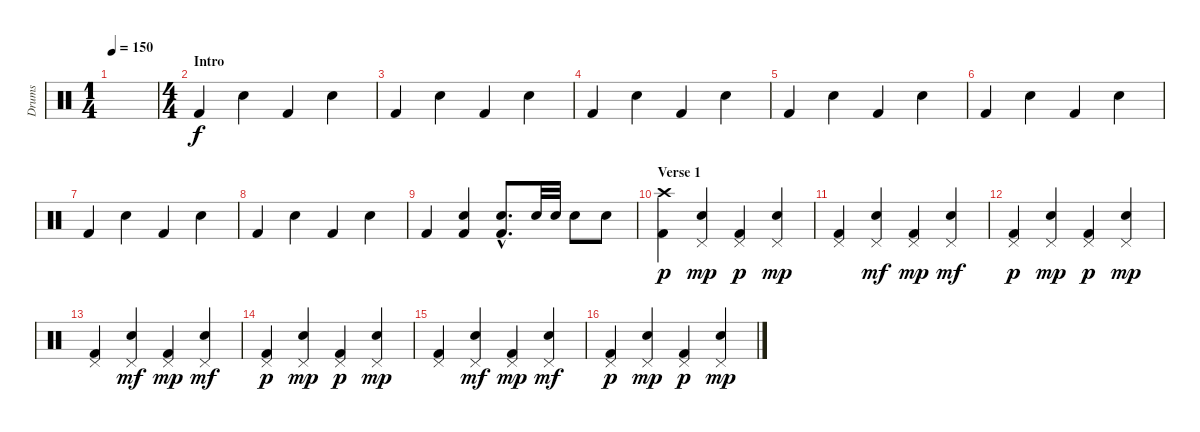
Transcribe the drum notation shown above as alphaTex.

\track ("Drums" "Drums") {instrument percussion}
\staff {score}
\articulation defaults
\ts (1 4)
\tempo 150
\clef neutral
\ks c
|
\ts (4 4)
\section ("" "Intro")
"Kick (hit) 2".4 "Electric Snare (hit)".4 "Kick (hit) 2".4 "Electric Snare (hit)".4 |
"Kick (hit) 2".4 "Electric Snare (hit)".4 "Kick (hit) 2".4 "Electric Snare (hit)".4 |
"Kick (hit) 2".4 "Electric Snare (hit)".4 "Kick (hit) 2".4 "Electric Snare (hit)".4 |
"Kick (hit) 2".4 "Electric Snare (hit)".4 "Kick (hit) 2".4 "Electric Snare (hit)".4 |
"Kick (hit) 2".4 "Electric Snare (hit)".4 "Kick (hit) 2".4 "Electric Snare (hit)".4 |
"Kick (hit) 2".4 "Electric Snare (hit)".4 "Kick (hit) 2".4 "Electric Snare (hit)".4 |
"Kick (hit) 2".4 "Electric Snare (hit)".4 "Kick (hit) 2".4 "Electric Snare (hit)".4 |
"Kick (hit) 2".4 ("Electric Snare (hit)" "Kick (hit) 2").4 ("Electric Snare (hit)"{hac} "Kick (hit) 2"{hac}).8{d} "Electric Snare (hit)".32 "Electric Snare (hit)".32 "Electric Snare (hit)".8 "Electric Snare (hit)".8 |
\section ("" "Verse 1")
("Crash high (hit)" "Kick (hit) 2").4{dy p} ("Pedal Hi-Hat (hit)" "Electric Snare (hit)").4{dy mp} ("Pedal Hi-Hat (hit)" "Kick (hit) 2").4{dy p} ("Pedal Hi-Hat (hit)" "Electric Snare (hit)").4{dy mp} |
("Pedal Hi-Hat (hit)" "Kick (hit) 2").4 ("Pedal Hi-Hat (hit)" "Electric Snare (hit)").4{dy mf} ("Pedal Hi-Hat (hit)" "Kick (hit) 2").4{dy mp} ("Pedal Hi-Hat (hit)" "Electric Snare (hit)").4{dy mf} |
("Pedal Hi-Hat (hit)" "Kick (hit) 2").4{dy p} ("Pedal Hi-Hat (hit)" "Electric Snare (hit)").4{dy mp} ("Pedal Hi-Hat (hit)" "Kick (hit) 2").4{dy p} ("Pedal Hi-Hat (hit)" "Electric Snare (hit)").4{dy mp} |
("Pedal Hi-Hat (hit)" "Kick (hit) 2").4 ("Pedal Hi-Hat (hit)" "Electric Snare (hit)").4{dy mf} ("Pedal Hi-Hat (hit)" "Kick (hit) 2").4{dy mp} ("Pedal Hi-Hat (hit)" "Electric Snare (hit)").4{dy mf} |
("Pedal Hi-Hat (hit)" "Kick (hit) 2").4{dy p} ("Pedal Hi-Hat (hit)" "Electric Snare (hit)").4{dy mp} ("Pedal Hi-Hat (hit)" "Kick (hit) 2").4{dy p} ("Pedal Hi-Hat (hit)" "Electric Snare (hit)").4{dy mp} |
("Pedal Hi-Hat (hit)" "Kick (hit) 2").4 ("Pedal Hi-Hat (hit)" "Electric Snare (hit)").4{dy mf} ("Pedal Hi-Hat (hit)" "Kick (hit) 2").4{dy mp} ("Pedal Hi-Hat (hit)" "Electric Snare (hit)").4{dy mf} |
("Pedal Hi-Hat (hit)" "Kick (hit) 2").4{dy p} ("Pedal Hi-Hat (hit)" "Electric Snare (hit)").4{dy mp} ("Pedal Hi-Hat (hit)" "Kick (hit) 2").4{dy p} ("Pedal Hi-Hat (hit)" "Electric Snare (hit)").4{dy mp}
